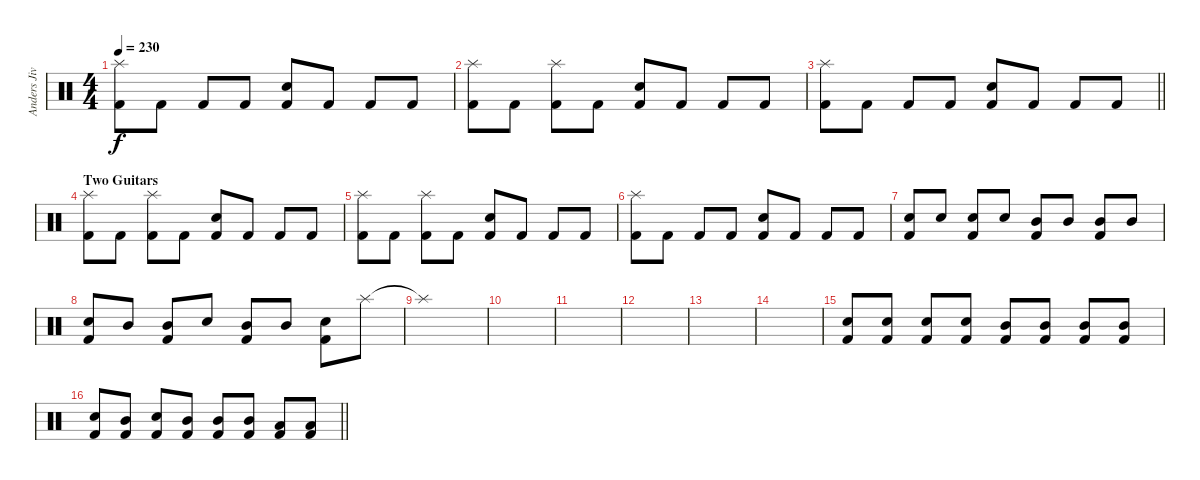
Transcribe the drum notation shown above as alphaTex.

\track ("Anders Jivarp" "Anders Jiv") {instrument percussion}
\staff {score}
\articulation defaults
\ts (4 4)
\tempo 230
\clef neutral
\ks c
("Kick (hit) 2" "Splash (hit)").8{dy f} "Kick (hit) 2".8 "Kick (hit) 2".8 "Kick (hit) 2".8 ("Kick (hit) 2" "Electric Snare (hit)").8 "Kick (hit) 2".8 "Kick (hit) 2".8 "Kick (hit) 2".8 |
("Kick (hit) 2" "Splash (hit)").8 "Kick (hit) 2".8 ("Kick (hit) 2" "Splash (hit)").8 "Kick (hit) 2".8 ("Kick (hit) 2" "Electric Snare (hit)").8 "Kick (hit) 2".8 "Kick (hit) 2".8 "Kick (hit) 2".8 |
\barLineRight lightlight
("Kick (hit) 2" "Splash (hit)").8 "Kick (hit) 2".8 "Kick (hit) 2".8 "Kick (hit) 2".8 ("Kick (hit) 2" "Electric Snare (hit)").8 "Kick (hit) 2".8 "Kick (hit) 2".8 "Kick (hit) 2".8 |
\section ("" "Two Guitars")
("Kick (hit) 2" "Splash (hit)").8 "Kick (hit) 2".8 ("Kick (hit) 2" "Splash (hit)").8 "Kick (hit) 2".8 ("Kick (hit) 2" "Electric Snare (hit)").8 "Kick (hit) 2".8 "Kick (hit) 2".8 "Kick (hit) 2".8 |
("Kick (hit) 2" "Splash (hit)").8 "Kick (hit) 2".8 ("Kick (hit) 2" "Splash (hit)").8 "Kick (hit) 2".8 ("Kick (hit) 2" "Electric Snare (hit)").8 "Kick (hit) 2".8 "Kick (hit) 2".8 "Kick (hit) 2".8 |
("Kick (hit) 2" "Splash (hit)").8 "Kick (hit) 2".8 "Kick (hit) 2".8 "Kick (hit) 2".8 ("Kick (hit) 2" "Electric Snare (hit)").8 "Kick (hit) 2".8 "Kick (hit) 2".8 "Kick (hit) 2".8 |
("Kick (hit) 2" "Electric Snare (hit)").8 "Electric Snare (hit)".8 ("Kick (hit) 2" "Electric Snare (hit)").8 "Electric Snare (hit)".8 ("Kick (hit) 2" "Mid Tom (hit)").8 "Mid Tom (hit)".8 ("Kick (hit) 2" "Mid Tom (hit)").8 "Mid Tom (hit)".8 |
("Kick (hit) 2" "Electric Snare (hit)").8 "Mid Tom (hit)".8 ("Kick (hit) 2" "Mid Tom (hit)").8 "Electric Snare (hit)".8 ("Kick (hit) 2" "Mid Tom (hit)").8 "Mid Tom (hit)".8 ("Kick (hit) 2" "Electric Snare (hit)").8 "Splash (hit)".8 |
"Splash (hit)"{t}.1 |
|
|
|
|
|
("Kick (hit) 2" "Electric Snare (hit)").8 ("Kick (hit) 2" "Electric Snare (hit)").8 ("Kick (hit) 2" "Electric Snare (hit)").8 ("Kick (hit) 2" "Electric Snare (hit)").8 ("Kick (hit) 2" "Mid Tom (hit)").8 ("Kick (hit) 2" "Mid Tom (hit)").8 ("Kick (hit) 2" "Mid Tom (hit)").8 ("Kick (hit) 2" "Mid Tom (hit)").8 |
\barLineRight lightlight
("Kick (hit) 2" "Electric Snare (hit)").8 ("Kick (hit) 2" "Mid Tom (hit)").8 ("Kick (hit) 2" "Electric Snare (hit)").8 ("Kick (hit) 2" "Mid Tom (hit)").8 ("Kick (hit) 2" "Mid Tom (hit)").8 ("Kick (hit) 2" "Mid Tom (hit)").8 ("Kick (hit) 2" "Low Tom (hit)").8 ("Kick (hit) 2" "Low Tom (hit)").8
